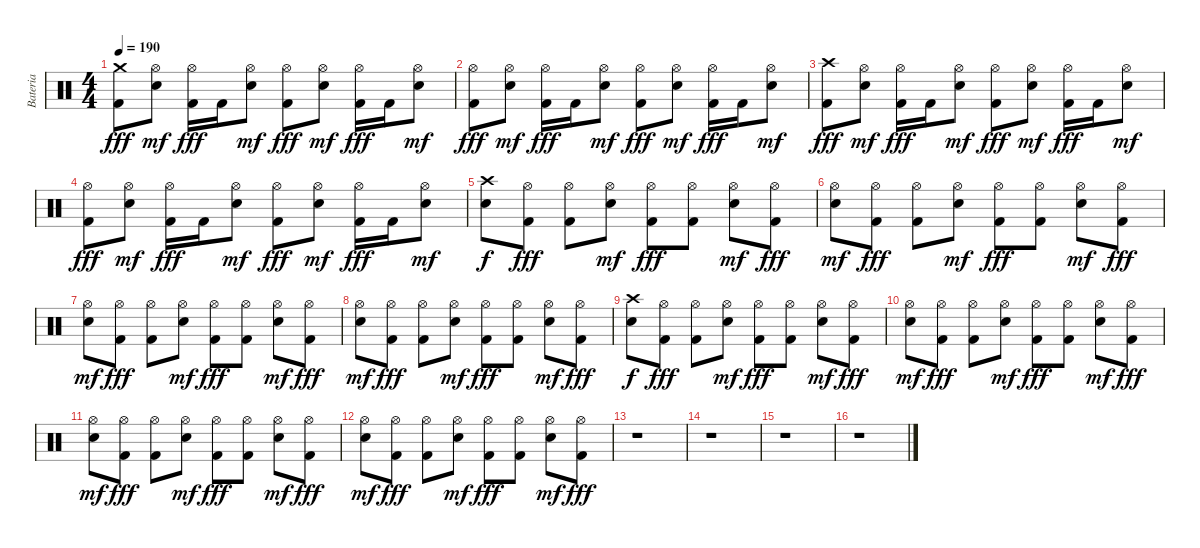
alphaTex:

\track ("Bateria" "Bateria") {instrument percussion}
\staff {score}
\articulation defaults
\ts (4 4)
\tempo 190
\clef neutral
\ks c
("Crash medium (hit)" "Kick (hit) 2").8{dy fff} ("Hi-Hat (open)" "Electric Snare (hit)").8{dy mf} ("Hi-Hat (open)" "Kick (hit) 2").16{dy fff} "Kick (hit) 2".16 ("Hi-Hat (open)" "Electric Snare (hit)").8{dy mf} ("Hi-Hat (open)" "Kick (hit) 2").8{dy fff} ("Hi-Hat (open)" "Electric Snare (hit)").8{dy mf} ("Hi-Hat (open)" "Kick (hit) 2").16{dy fff} "Kick (hit) 2".16 ("Hi-Hat (open)" "Electric Snare (hit)").8{dy mf} |
("Hi-Hat (open)" "Kick (hit) 2").8{dy fff} ("Hi-Hat (open)" "Electric Snare (hit)").8{dy mf} ("Hi-Hat (open)" "Kick (hit) 2").16{dy fff} "Kick (hit) 2".16 ("Hi-Hat (open)" "Electric Snare (hit)").8{dy mf} ("Hi-Hat (open)" "Kick (hit) 2").8{dy fff} ("Hi-Hat (open)" "Electric Snare (hit)").8{dy mf} ("Hi-Hat (open)" "Kick (hit) 2").16{dy fff} "Kick (hit) 2".16 ("Hi-Hat (open)" "Electric Snare (hit)").8{dy mf} |
("Crash high (hit)" "Kick (hit) 2").8{dy fff} ("Hi-Hat (open)" "Electric Snare (hit)").8{dy mf} ("Hi-Hat (open)" "Kick (hit) 2").16{dy fff} "Kick (hit) 2".16 ("Hi-Hat (open)" "Electric Snare (hit)").8{dy mf} ("Hi-Hat (open)" "Kick (hit) 2").8{dy fff} ("Hi-Hat (open)" "Electric Snare (hit)").8{dy mf} ("Hi-Hat (open)" "Kick (hit) 2").16{dy fff} "Kick (hit) 2".16 ("Hi-Hat (open)" "Electric Snare (hit)").8{dy mf} |
("Hi-Hat (open)" "Kick (hit) 2").8{dy fff} ("Hi-Hat (open)" "Electric Snare (hit)").8{dy mf} ("Hi-Hat (open)" "Kick (hit) 2").16{dy fff} "Kick (hit) 2".16 ("Hi-Hat (open)" "Electric Snare (hit)").8{dy mf} ("Hi-Hat (open)" "Kick (hit) 2").8{dy fff} ("Hi-Hat (open)" "Electric Snare (hit)").8{dy mf} ("Hi-Hat (open)" "Kick (hit) 2").16{dy fff} "Kick (hit) 2".16 ("Hi-Hat (open)" "Electric Snare (hit)").8{dy mf} |
("Crash high (hit)" "Electric Snare (hit)").8{dy f} ("Hi-Hat (open)" "Kick (hit) 2").8{dy fff} ("Hi-Hat (open)" "Kick (hit) 2").8 ("Hi-Hat (open)" "Electric Snare (hit)").8{dy mf} ("Hi-Hat (open)" "Kick (hit) 2").8{dy fff} ("Hi-Hat (open)" "Kick (hit) 2").8 ("Hi-Hat (open)" "Electric Snare (hit)").8{dy mf} ("Hi-Hat (open)" "Kick (hit) 2").8{dy fff} |
("Hi-Hat (open)" "Electric Snare (hit)").8{dy mf} ("Hi-Hat (open)" "Kick (hit) 2").8{dy fff} ("Hi-Hat (open)" "Kick (hit) 2").8 ("Hi-Hat (open)" "Electric Snare (hit)").8{dy mf} ("Hi-Hat (open)" "Kick (hit) 2").8{dy fff} ("Hi-Hat (open)" "Kick (hit) 2").8 ("Hi-Hat (open)" "Electric Snare (hit)").8{dy mf} ("Hi-Hat (open)" "Kick (hit) 2").8{dy fff} |
("Hi-Hat (open)" "Electric Snare (hit)").8{dy mf} ("Hi-Hat (open)" "Kick (hit) 2").8{dy fff} ("Hi-Hat (open)" "Kick (hit) 2").8 ("Hi-Hat (open)" "Electric Snare (hit)").8{dy mf} ("Hi-Hat (open)" "Kick (hit) 2").8{dy fff} ("Hi-Hat (open)" "Kick (hit) 2").8 ("Hi-Hat (open)" "Electric Snare (hit)").8{dy mf} ("Hi-Hat (open)" "Kick (hit) 2").8{dy fff} |
("Hi-Hat (open)" "Electric Snare (hit)").8{dy mf} ("Hi-Hat (open)" "Kick (hit) 2").8{dy fff} ("Hi-Hat (open)" "Kick (hit) 2").8 ("Hi-Hat (open)" "Electric Snare (hit)").8{dy mf} ("Hi-Hat (open)" "Kick (hit) 2").8{dy fff} ("Hi-Hat (open)" "Kick (hit) 2").8 ("Hi-Hat (open)" "Electric Snare (hit)").8{dy mf} ("Hi-Hat (open)" "Kick (hit) 2").8{dy fff} |
("Crash high (hit)" "Electric Snare (hit)").8{dy f} ("Hi-Hat (open)" "Kick (hit) 2").8{dy fff} ("Hi-Hat (open)" "Kick (hit) 2").8 ("Hi-Hat (open)" "Electric Snare (hit)").8{dy mf} ("Hi-Hat (open)" "Kick (hit) 2").8{dy fff} ("Hi-Hat (open)" "Kick (hit) 2").8 ("Hi-Hat (open)" "Electric Snare (hit)").8{dy mf} ("Hi-Hat (open)" "Kick (hit) 2").8{dy fff} |
("Hi-Hat (open)" "Electric Snare (hit)").8{dy mf} ("Hi-Hat (open)" "Kick (hit) 2").8{dy fff} ("Hi-Hat (open)" "Kick (hit) 2").8 ("Hi-Hat (open)" "Electric Snare (hit)").8{dy mf} ("Hi-Hat (open)" "Kick (hit) 2").8{dy fff} ("Hi-Hat (open)" "Kick (hit) 2").8 ("Hi-Hat (open)" "Electric Snare (hit)").8{dy mf} ("Hi-Hat (open)" "Kick (hit) 2").8{dy fff} |
("Hi-Hat (open)" "Electric Snare (hit)").8{dy mf} ("Hi-Hat (open)" "Kick (hit) 2").8{dy fff} ("Hi-Hat (open)" "Kick (hit) 2").8 ("Hi-Hat (open)" "Electric Snare (hit)").8{dy mf} ("Hi-Hat (open)" "Kick (hit) 2").8{dy fff} ("Hi-Hat (open)" "Kick (hit) 2").8 ("Hi-Hat (open)" "Electric Snare (hit)").8{dy mf} ("Hi-Hat (open)" "Kick (hit) 2").8{dy fff} |
("Hi-Hat (open)" "Electric Snare (hit)").8{dy mf} ("Hi-Hat (open)" "Kick (hit) 2").8{dy fff} ("Hi-Hat (open)" "Kick (hit) 2").8 ("Hi-Hat (open)" "Electric Snare (hit)").8{dy mf} ("Hi-Hat (open)" "Kick (hit) 2").8{dy fff} ("Hi-Hat (open)" "Kick (hit) 2").8 ("Hi-Hat (open)" "Electric Snare (hit)").8{dy mf} ("Hi-Hat (open)" "Kick (hit) 2").8{dy fff} |
r.1 |
r.1 |
r.1 |
r.1
